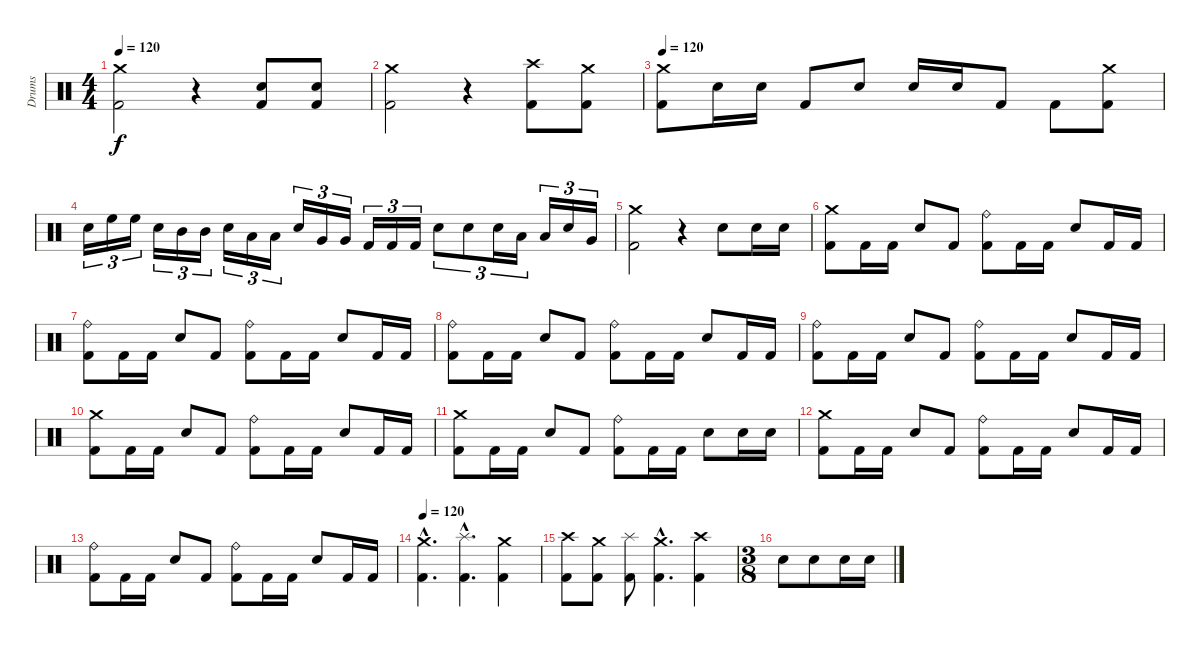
\track ("Drums" "Drums") {instrument percussion}
\staff {score}
\articulation defaults
\ts (4 4)
\tempo 120
\clef neutral
\ks c
("Crash medium (hit)" "Kick (hit) 2").2{dy f} r.4 ("Electric Snare (hit)" "Kick (hit) 2").8 ("Electric Snare (hit)" "Kick (hit) 2").8 |
("Crash medium (hit)" "Kick (hit) 2").2 r.4 ("Crash high (hit)" "Kick (hit) 2").8 ("Crash medium (hit)" "Kick (hit) 2").8 |
\tempo 120
("Crash medium (hit)" "Kick (hit) 2").8 "Electric Snare (hit)".16 "Electric Snare (hit)".16 "Kick (hit) 2".8 "Electric Snare (hit)".8 "Electric Snare (hit)".16 "Electric Snare (hit)".16 "Kick (hit) 2".8 "Kick (hit) 2".8 ("Crash medium (hit)" "Kick (hit) 2").8 |
"Electric Snare (hit)".16{tu (3 2)} "High Floor Tom (hit)".16{tu (3 2)} "High Floor Tom (hit)".16{tu (3 2)} "Electric Snare (hit)".16{tu (3 2)} "Mid Tom (hit)".16{tu (3 2)} "Mid Tom (hit)".16{tu (3 2)} "Electric Snare (hit)".16{tu (3 2)} "Low Tom (hit)".16{tu (3 2)} "Low Tom (hit)".16{tu (3 2)} "Electric Snare (hit)".16{tu (3 2)} "Very Low Tom (hit)".16{tu (3 2)} "Very Low Tom (hit)".16{tu (3 2)} "Kick (hit) 2".16{tu (3 2)} "Kick (hit) 2".16{tu (3 2)} "Kick (hit) 2".16{tu (3 2)} "Electric Snare (hit)".8{tu (3 2)} "Electric Snare (hit)".8{tu (3 2)} "Electric Snare (hit)".16{tu (3 2)} "Low Tom (hit)".16{tu (3 2)} "Low Tom (hit)".16{tu (3 2)} "Electric Snare (hit)".16{tu (3 2)} "Very Low Tom (hit)".16{tu (3 2)} |
("Crash medium (hit)" "Kick (hit) 2").2 r.4 "Electric Snare (hit)".8 "Electric Snare (hit)".16 "Electric Snare (hit)".16 |
("Crash medium (hit)" "Kick (hit) 2").8 "Kick (hit) 2".16 "Kick (hit) 2".16 "Electric Snare (hit)".8 "Kick (hit) 2".8 ("Ride (bell)" "Kick (hit) 2").8 "Kick (hit) 2".16 "Kick (hit) 2".16 "Electric Snare (hit)".8 "Kick (hit) 2".16 "Kick (hit) 2".16 |
("Ride (bell)" "Kick (hit) 2").8 "Kick (hit) 2".16 "Kick (hit) 2".16 "Electric Snare (hit)".8 "Kick (hit) 2".8 ("Ride (bell)" "Kick (hit) 2").8 "Kick (hit) 2".16 "Kick (hit) 2".16 "Electric Snare (hit)".8 "Kick (hit) 2".16 "Kick (hit) 2".16 |
("Ride (bell)" "Kick (hit) 2").8 "Kick (hit) 2".16 "Kick (hit) 2".16 "Electric Snare (hit)".8 "Kick (hit) 2".8 ("Ride (bell)" "Kick (hit) 2").8 "Kick (hit) 2".16 "Kick (hit) 2".16 "Electric Snare (hit)".8 "Kick (hit) 2".16 "Kick (hit) 2".16 |
("Ride (bell)" "Kick (hit) 2").8 "Kick (hit) 2".16 "Kick (hit) 2".16 "Electric Snare (hit)".8 "Kick (hit) 2".8 ("Ride (bell)" "Kick (hit) 2").8 "Kick (hit) 2".16 "Kick (hit) 2".16 "Electric Snare (hit)".8 "Kick (hit) 2".16 "Kick (hit) 2".16 |
("Crash medium (hit)" "Kick (hit) 2").8 "Kick (hit) 2".16 "Kick (hit) 2".16 "Electric Snare (hit)".8 "Kick (hit) 2".8 ("Ride (bell)" "Kick (hit) 2").8 "Kick (hit) 2".16 "Kick (hit) 2".16 "Electric Snare (hit)".8 "Kick (hit) 2".16 "Kick (hit) 2".16 |
("Crash medium (hit)" "Kick (hit) 2").8 "Kick (hit) 2".16 "Kick (hit) 2".16 "Electric Snare (hit)".8 "Kick (hit) 2".8 ("Ride (bell)" "Kick (hit) 2").8 "Kick (hit) 2".16 "Kick (hit) 2".16 "Electric Snare (hit)".8 "Electric Snare (hit)".16 "Electric Snare (hit)".16 |
("Crash medium (hit)" "Kick (hit) 2").8 "Kick (hit) 2".16 "Kick (hit) 2".16 "Electric Snare (hit)".8 "Kick (hit) 2".8 ("Ride (bell)" "Kick (hit) 2").8 "Kick (hit) 2".16 "Kick (hit) 2".16 "Electric Snare (hit)".8 "Kick (hit) 2".16 "Kick (hit) 2".16 |
("Ride (bell)" "Kick (hit) 2").8 "Kick (hit) 2".16 "Kick (hit) 2".16 "Electric Snare (hit)".8 "Kick (hit) 2".8 ("Ride (bell)" "Kick (hit) 2").8 "Kick (hit) 2".16 "Kick (hit) 2".16 "Electric Snare (hit)".8 "Kick (hit) 2".16 "Kick (hit) 2".16 |
\tempo 120
("Crash medium (hit)"{hac} "Kick (hit) 2"{hac}).4{d} ("Splash (hit)"{hac} "Kick (hit) 2"{hac}).4{d} ("Crash medium (hit)" "Kick (hit) 2").4 |
("Crash high (hit)" "Kick (hit) 2").8 ("Crash medium (hit)" "Kick (hit) 2").8 ("Splash (hit)" "Kick (hit) 2").8 ("Crash medium (hit)"{hac} "Kick (hit) 2"{hac}).4{d} ("Crash high (hit)" "Kick (hit) 2").4 |
\ts (3 8)
"Electric Snare (hit)".8 "Electric Snare (hit)".8 "Electric Snare (hit)".16 "Electric Snare (hit)".16
